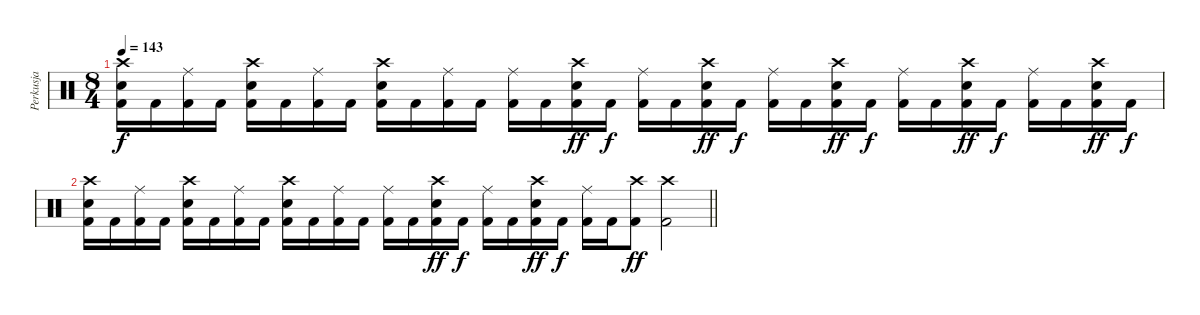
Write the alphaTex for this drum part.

\track ("Perkusja" "Perkusja") {instrument percussion}
\staff {score}
\articulation defaults
\ts (8 4)
\tempo 143
\clef neutral
\ks c
("Crash high (hit)" "Snare (hit) 2" "Kick (hit) 2").16{dy f} "Kick (hit) 2".16 ("Ride (middle)" "Kick (hit) 2").16 "Kick (hit) 2".16 ("Crash high (hit)" "Snare (hit) 2" "Kick (hit) 2").16 "Kick (hit) 2".16 ("Ride (middle)" "Kick (hit) 2").16 "Kick (hit) 2".16 ("Crash high (hit)" "Snare (hit) 2" "Kick (hit) 2").16 "Kick (hit) 2".16 ("Ride (middle)" "Kick (hit) 2").16 "Kick (hit) 2".16 ("Ride (middle)" "Kick (hit) 2").16 "Kick (hit) 2".16 ("Crash high (hit)" "Snare (hit) 2" "Kick (hit) 2").16{dy ff} "Kick (hit) 2".16{dy f} ("Ride (middle)" "Kick (hit) 2").16 "Kick (hit) 2".16 ("Crash high (hit)" "Snare (hit) 2" "Kick (hit) 2").16{dy ff} "Kick (hit) 2".16{dy f} ("Ride (middle)" "Kick (hit) 2").16 "Kick (hit) 2".16 ("Crash high (hit)" "Snare (hit) 2" "Kick (hit) 2").16{dy ff} "Kick (hit) 2".16{dy f} ("Ride (middle)" "Kick (hit) 2").16 "Kick (hit) 2".16 ("Crash high (hit)" "Snare (hit) 2" "Kick (hit) 2").16{dy ff} "Kick (hit) 2".16{dy f} ("Ride (middle)" "Kick (hit) 2").16 "Kick (hit) 2".16 ("Crash high (hit)" "Snare (hit) 2" "Kick (hit) 2").16{dy ff} "Kick (hit) 2".16{dy f} |
\barLineRight lightlight
("Crash high (hit)" "Snare (hit) 2" "Kick (hit) 2").16 "Kick (hit) 2".16 ("Ride (middle)" "Kick (hit) 2").16 "Kick (hit) 2".16 ("Crash high (hit)" "Snare (hit) 2" "Kick (hit) 2").16 "Kick (hit) 2".16 ("Ride (middle)" "Kick (hit) 2").16 "Kick (hit) 2".16 ("Crash high (hit)" "Snare (hit) 2" "Kick (hit) 2").16 "Kick (hit) 2".16 ("Ride (middle)" "Kick (hit) 2").16 "Kick (hit) 2".16 ("Ride (middle)" "Kick (hit) 2").16 "Kick (hit) 2".16 ("Crash high (hit)" "Snare (hit) 2" "Kick (hit) 2").16{dy ff} "Kick (hit) 2".16{dy f} ("Ride (middle)" "Kick (hit) 2").16 "Kick (hit) 2".16 ("Crash high (hit)" "Snare (hit) 2" "Kick (hit) 2").16{dy ff} "Kick (hit) 2".16{dy f} ("Ride (middle)" "Kick (hit) 2").16 "Kick (hit) 2".16 ("Crash high (hit)" "Kick (hit) 2").8{dy ff} ("Crash high (hit)" "Kick (hit) 2").2
